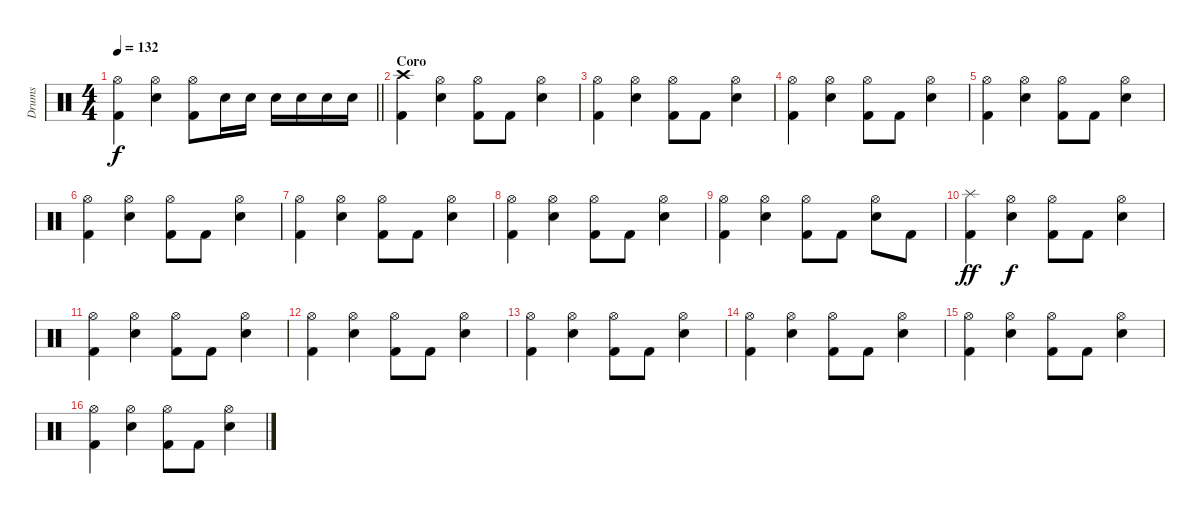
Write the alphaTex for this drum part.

\track ("Drums" "Drums") {instrument percussion}
\staff {score}
\articulation defaults
\ts (4 4)
\tempo 132
\clef neutral
\barLineRight lightlight
\ks c
("Hi-Hat (open)" "Kick (hit) 2").4{dy f} ("Hi-Hat (open)" "Electric Snare (hit)").4 ("Hi-Hat (open)" "Kick (hit) 2").8 "Electric Snare (hit)".16 "Electric Snare (hit)".16 "Electric Snare (hit)".16 "Electric Snare (hit)".16 "Electric Snare (hit)".16 "Electric Snare (hit)".16 |
\section ("" "Coro")
("Crash high (hit)" "Kick (hit) 2").4 ("Hi-Hat (open)" "Electric Snare (hit)").4 ("Hi-Hat (open)" "Kick (hit) 2").8 "Kick (hit) 2".8 ("Hi-Hat (open)" "Electric Snare (hit)").4 |
("Hi-Hat (open)" "Kick (hit) 2").4 ("Hi-Hat (open)" "Electric Snare (hit)").4 ("Hi-Hat (open)" "Kick (hit) 2").8 "Kick (hit) 2".8 ("Hi-Hat (open)" "Electric Snare (hit)").4 |
("Hi-Hat (open)" "Kick (hit) 2").4 ("Hi-Hat (open)" "Electric Snare (hit)").4 ("Hi-Hat (open)" "Kick (hit) 2").8 "Kick (hit) 2".8 ("Hi-Hat (open)" "Electric Snare (hit)").4 |
("Hi-Hat (open)" "Kick (hit) 2").4 ("Hi-Hat (open)" "Electric Snare (hit)").4 ("Hi-Hat (open)" "Kick (hit) 2").8 "Kick (hit) 2".8 ("Hi-Hat (open)" "Electric Snare (hit)").4 |
("Hi-Hat (open)" "Kick (hit) 2").4 ("Hi-Hat (open)" "Electric Snare (hit)").4 ("Hi-Hat (open)" "Kick (hit) 2").8 "Kick (hit) 2".8 ("Hi-Hat (open)" "Electric Snare (hit)").4 |
("Hi-Hat (open)" "Kick (hit) 2").4 ("Hi-Hat (open)" "Electric Snare (hit)").4 ("Hi-Hat (open)" "Kick (hit) 2").8 "Kick (hit) 2".8 ("Hi-Hat (open)" "Electric Snare (hit)").4 |
("Hi-Hat (open)" "Kick (hit) 2").4 ("Hi-Hat (open)" "Electric Snare (hit)").4 ("Hi-Hat (open)" "Kick (hit) 2").8 "Kick (hit) 2".8 ("Hi-Hat (open)" "Electric Snare (hit)").4 |
("Hi-Hat (open)" "Kick (hit) 2").4 ("Hi-Hat (open)" "Electric Snare (hit)").4 ("Hi-Hat (open)" "Kick (hit) 2").8 "Kick (hit) 2".8 ("Hi-Hat (open)" "Electric Snare (hit)").8 "Kick (hit) 2".8 |
("Splash (hit)" "Kick (hit) 2").4{dy ff} ("Hi-Hat (open)" "Electric Snare (hit)").4{dy f} ("Hi-Hat (open)" "Kick (hit) 2").8 "Kick (hit) 2".8 ("Hi-Hat (open)" "Electric Snare (hit)").4 |
("Hi-Hat (open)" "Kick (hit) 2").4 ("Hi-Hat (open)" "Electric Snare (hit)").4 ("Hi-Hat (open)" "Kick (hit) 2").8 "Kick (hit) 2".8 ("Hi-Hat (open)" "Electric Snare (hit)").4 |
("Hi-Hat (open)" "Kick (hit) 2").4 ("Hi-Hat (open)" "Electric Snare (hit)").4 ("Hi-Hat (open)" "Kick (hit) 2").8 "Kick (hit) 2".8 ("Hi-Hat (open)" "Electric Snare (hit)").4 |
("Hi-Hat (open)" "Kick (hit) 2").4 ("Hi-Hat (open)" "Electric Snare (hit)").4 ("Hi-Hat (open)" "Kick (hit) 2").8 "Kick (hit) 2".8 ("Hi-Hat (open)" "Electric Snare (hit)").4 |
("Hi-Hat (open)" "Kick (hit) 2").4 ("Hi-Hat (open)" "Electric Snare (hit)").4 ("Hi-Hat (open)" "Kick (hit) 2").8 "Kick (hit) 2".8 ("Hi-Hat (open)" "Electric Snare (hit)").4 |
("Hi-Hat (open)" "Kick (hit) 2").4 ("Hi-Hat (open)" "Electric Snare (hit)").4 ("Hi-Hat (open)" "Kick (hit) 2").8 "Kick (hit) 2".8 ("Hi-Hat (open)" "Electric Snare (hit)").4 |
("Hi-Hat (open)" "Kick (hit) 2").4 ("Hi-Hat (open)" "Electric Snare (hit)").4 ("Hi-Hat (open)" "Kick (hit) 2").8 "Kick (hit) 2".8 ("Hi-Hat (open)" "Electric Snare (hit)").4
